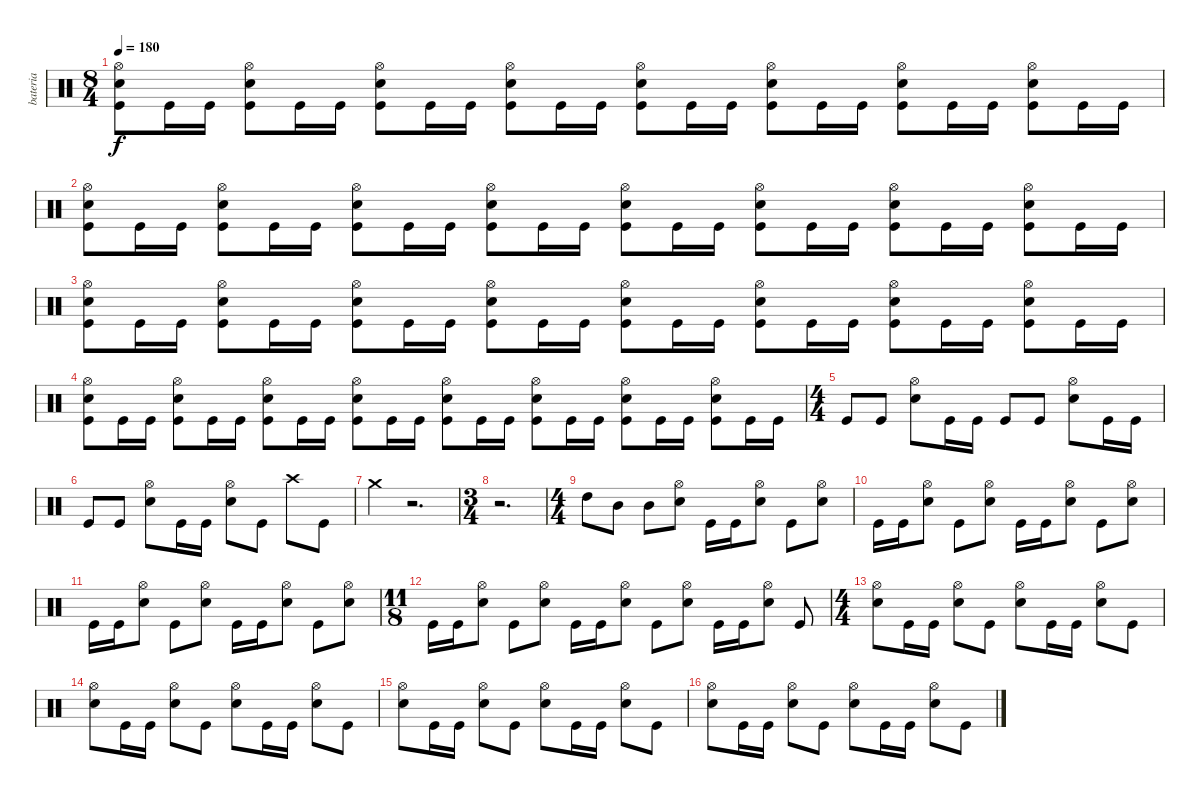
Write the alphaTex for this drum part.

\track ("bateria" "bateria") {instrument percussion}
\staff {score}
\articulation defaults
\ts (8 4)
\tempo 180
\clef neutral
\ks c
("Kick (hit)" "Snare (hit) 2" "Hi-Hat (open)").8{dy f} "Kick (hit)".16 "Kick (hit)".16 ("Kick (hit)" "Snare (hit) 2" "Hi-Hat (open)").8 "Kick (hit)".16 "Kick (hit)".16 ("Kick (hit)" "Snare (hit) 2" "Hi-Hat (open)").8 "Kick (hit)".16 "Kick (hit)".16 ("Kick (hit)" "Snare (hit) 2" "Hi-Hat (open)").8 "Kick (hit)".16 "Kick (hit)".16 ("Kick (hit)" "Snare (hit) 2" "Hi-Hat (open)").8 "Kick (hit)".16 "Kick (hit)".16 ("Kick (hit)" "Snare (hit) 2" "Hi-Hat (open)").8 "Kick (hit)".16 "Kick (hit)".16 ("Kick (hit)" "Snare (hit) 2" "Hi-Hat (open)").8 "Kick (hit)".16 "Kick (hit)".16 ("Kick (hit)" "Snare (hit) 2" "Hi-Hat (open)").8 "Kick (hit)".16 "Kick (hit)".16 |
("Kick (hit)" "Snare (hit) 2" "Hi-Hat (open)").8 "Kick (hit)".16 "Kick (hit)".16 ("Kick (hit)" "Snare (hit) 2" "Hi-Hat (open)").8 "Kick (hit)".16 "Kick (hit)".16 ("Kick (hit)" "Snare (hit) 2" "Hi-Hat (open)").8 "Kick (hit)".16 "Kick (hit)".16 ("Kick (hit)" "Snare (hit) 2" "Hi-Hat (open)").8 "Kick (hit)".16 "Kick (hit)".16 ("Kick (hit)" "Snare (hit) 2" "Hi-Hat (open)").8 "Kick (hit)".16 "Kick (hit)".16 ("Kick (hit)" "Snare (hit) 2" "Hi-Hat (open)").8 "Kick (hit)".16 "Kick (hit)".16 ("Kick (hit)" "Snare (hit) 2" "Hi-Hat (open)").8 "Kick (hit)".16 "Kick (hit)".16 ("Kick (hit)" "Snare (hit) 2" "Hi-Hat (open)").8 "Kick (hit)".16 "Kick (hit)".16 |
("Kick (hit)" "Snare (hit) 2" "Hi-Hat (open)").8 "Kick (hit)".16 "Kick (hit)".16 ("Kick (hit)" "Snare (hit) 2" "Hi-Hat (open)").8 "Kick (hit)".16 "Kick (hit)".16 ("Kick (hit)" "Snare (hit) 2" "Hi-Hat (open)").8 "Kick (hit)".16 "Kick (hit)".16 ("Kick (hit)" "Snare (hit) 2" "Hi-Hat (open)").8 "Kick (hit)".16 "Kick (hit)".16 ("Kick (hit)" "Snare (hit) 2" "Hi-Hat (open)").8 "Kick (hit)".16 "Kick (hit)".16 ("Kick (hit)" "Snare (hit) 2" "Hi-Hat (open)").8 "Kick (hit)".16 "Kick (hit)".16 ("Kick (hit)" "Snare (hit) 2" "Hi-Hat (open)").8 "Kick (hit)".16 "Kick (hit)".16 ("Kick (hit)" "Snare (hit) 2" "Hi-Hat (open)").8 "Kick (hit)".16 "Kick (hit)".16 |
("Kick (hit)" "Snare (hit) 2" "Hi-Hat (open)").8 "Kick (hit)".16 "Kick (hit)".16 ("Kick (hit)" "Snare (hit) 2" "Hi-Hat (open)").8 "Kick (hit)".16 "Kick (hit)".16 ("Kick (hit)" "Snare (hit) 2" "Hi-Hat (open)").8 "Kick (hit)".16 "Kick (hit)".16 ("Kick (hit)" "Snare (hit) 2" "Hi-Hat (open)").8 "Kick (hit)".16 "Kick (hit)".16 ("Kick (hit)" "Snare (hit) 2" "Hi-Hat (open)").8 "Kick (hit)".16 "Kick (hit)".16 ("Kick (hit)" "Snare (hit) 2" "Hi-Hat (open)").8 "Kick (hit)".16 "Kick (hit)".16 ("Kick (hit)" "Snare (hit) 2" "Hi-Hat (open)").8 "Kick (hit)".16 "Kick (hit)".16 ("Kick (hit)" "Snare (hit) 2" "Hi-Hat (open)").8 "Kick (hit)".16 "Kick (hit)".16 |
\ts (4 4)
"Kick (hit)".8 "Kick (hit)".8 ("Snare (hit) 2" "Hi-Hat (open)").8 "Kick (hit)".16 "Kick (hit)".16 "Kick (hit)".8 "Kick (hit)".8 ("Snare (hit) 2" "Hi-Hat (open)").8 "Kick (hit)".16 "Kick (hit)".16 |
"Kick (hit)".8 "Kick (hit)".8 ("Snare (hit) 2" "Hi-Hat (open)").8 "Kick (hit)".16 "Kick (hit)".16 ("Snare (hit) 2" "Hi-Hat (open)").8 "Kick (hit)".8 "Crash high (hit)".8 "Kick (hit)".8 |
"Crash medium (hit)".4 r.2{d} |
\ts (3 4)
r.2{d} |
\ts (4 4)
"High Tom (hit)".8 "Mid Tom (hit)".8 "Mid Tom (hit)".8 ("Snare (hit) 2" "Hi-Hat (open)").8 "Kick (hit)".16 "Kick (hit)".16 ("Snare (hit) 2" "Hi-Hat (open)").8 "Kick (hit)".8 ("Snare (hit) 2" "Hi-Hat (open)").8 |
"Kick (hit)".16 "Kick (hit)".16 ("Snare (hit) 2" "Hi-Hat (open)").8 "Kick (hit)".8 ("Snare (hit) 2" "Hi-Hat (open)").8 "Kick (hit)".16 "Kick (hit)".16 ("Snare (hit) 2" "Hi-Hat (open)").8 "Kick (hit)".8 ("Snare (hit) 2" "Hi-Hat (open)").8 |
"Kick (hit)".16 "Kick (hit)".16 ("Snare (hit) 2" "Hi-Hat (open)").8 "Kick (hit)".8 ("Snare (hit) 2" "Hi-Hat (open)").8 "Kick (hit)".16 "Kick (hit)".16 ("Snare (hit) 2" "Hi-Hat (open)").8 "Kick (hit)".8 ("Snare (hit) 2" "Hi-Hat (open)").8 |
\ts (11 8)
"Kick (hit)".16 "Kick (hit)".16 ("Snare (hit) 2" "Hi-Hat (open)").8 "Kick (hit)".8 ("Snare (hit) 2" "Hi-Hat (open)").8 "Kick (hit)".16 "Kick (hit)".16 ("Snare (hit) 2" "Hi-Hat (open)").8 "Kick (hit)".8 ("Snare (hit) 2" "Hi-Hat (open)").8 "Kick (hit)".16 "Kick (hit)".16 ("Snare (hit) 2" "Hi-Hat (open)").8 "Kick (hit)".8 |
\ts (4 4)
("Snare (hit) 2" "Hi-Hat (open)").8 "Kick (hit)".16 "Kick (hit)".16 ("Snare (hit) 2" "Hi-Hat (open)").8 "Kick (hit)".8 ("Snare (hit) 2" "Hi-Hat (open)").8 "Kick (hit)".16 "Kick (hit)".16 ("Snare (hit) 2" "Hi-Hat (open)").8 "Kick (hit)".8 |
("Snare (hit) 2" "Hi-Hat (open)").8 "Kick (hit)".16 "Kick (hit)".16 ("Snare (hit) 2" "Hi-Hat (open)").8 "Kick (hit)".8 ("Snare (hit) 2" "Hi-Hat (open)").8 "Kick (hit)".16 "Kick (hit)".16 ("Snare (hit) 2" "Hi-Hat (open)").8 "Kick (hit)".8 |
("Snare (hit) 2" "Hi-Hat (open)").8 "Kick (hit)".16 "Kick (hit)".16 ("Snare (hit) 2" "Hi-Hat (open)").8 "Kick (hit)".8 ("Snare (hit) 2" "Hi-Hat (open)").8 "Kick (hit)".16 "Kick (hit)".16 ("Snare (hit) 2" "Hi-Hat (open)").8 "Kick (hit)".8 |
("Snare (hit) 2" "Hi-Hat (open)").8 "Kick (hit)".16 "Kick (hit)".16 ("Snare (hit) 2" "Hi-Hat (open)").8 "Kick (hit)".8 ("Snare (hit) 2" "Hi-Hat (open)").8 "Kick (hit)".16 "Kick (hit)".16 ("Snare (hit) 2" "Hi-Hat (open)").8 "Kick (hit)".8
